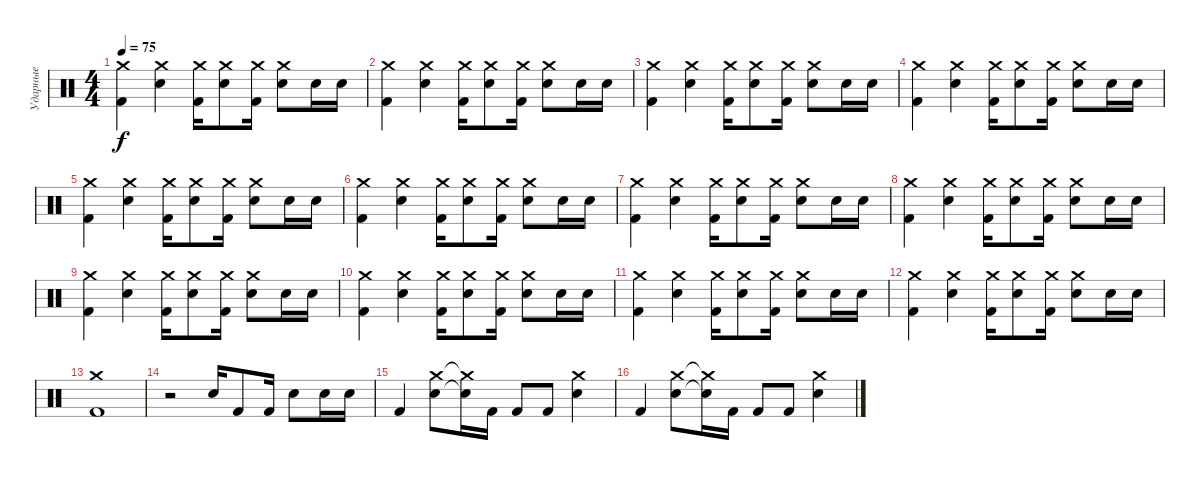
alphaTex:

\track ("Ударные" "Ударные") {instrument percussion}
\staff {score}
\articulation defaults
\ts (4 4)
\tempo 75
\clef neutral
\ks c
("Kick (hit) 2" "Crash medium (hit)").4{dy f} ("Electric Snare (hit)" "Crash medium (hit)").4 ("Kick (hit) 2" "Crash medium (hit)"{x}).16 ("Electric Snare (hit)" "Crash medium (hit)").8 ("Kick (hit) 2" "Crash medium (hit)"{x}).16 ("Electric Snare (hit)" "Crash medium (hit)").8 "Electric Snare (hit)".16 "Electric Snare (hit)".16 |
("Kick (hit) 2" "Crash medium (hit)").4 ("Electric Snare (hit)" "Crash medium (hit)").4 ("Kick (hit) 2" "Crash medium (hit)"{x}).16 ("Electric Snare (hit)" "Crash medium (hit)").8 ("Kick (hit) 2" "Crash medium (hit)"{x}).16 ("Electric Snare (hit)" "Crash medium (hit)").8 "Electric Snare (hit)".16 "Electric Snare (hit)".16 |
("Kick (hit) 2" "Crash medium (hit)").4 ("Electric Snare (hit)" "Crash medium (hit)").4 ("Kick (hit) 2" "Crash medium (hit)"{x}).16 ("Electric Snare (hit)" "Crash medium (hit)").8 ("Kick (hit) 2" "Crash medium (hit)"{x}).16 ("Electric Snare (hit)" "Crash medium (hit)").8 "Electric Snare (hit)".16 "Electric Snare (hit)".16 |
("Kick (hit) 2" "Crash medium (hit)").4 ("Electric Snare (hit)" "Crash medium (hit)").4 ("Kick (hit) 2" "Crash medium (hit)"{x}).16 ("Electric Snare (hit)" "Crash medium (hit)").8 ("Kick (hit) 2" "Crash medium (hit)"{x}).16 ("Electric Snare (hit)" "Crash medium (hit)").8 "Electric Snare (hit)".16 "Electric Snare (hit)".16 |
("Kick (hit) 2" "Crash medium (hit)").4 ("Electric Snare (hit)" "Crash medium (hit)").4 ("Kick (hit) 2" "Crash medium (hit)"{x}).16 ("Electric Snare (hit)" "Crash medium (hit)").8 ("Kick (hit) 2" "Crash medium (hit)"{x}).16 ("Electric Snare (hit)" "Crash medium (hit)").8 "Electric Snare (hit)".16 "Electric Snare (hit)".16 |
("Kick (hit) 2" "Crash medium (hit)").4 ("Electric Snare (hit)" "Crash medium (hit)").4 ("Kick (hit) 2" "Crash medium (hit)"{x}).16 ("Electric Snare (hit)" "Crash medium (hit)").8 ("Kick (hit) 2" "Crash medium (hit)"{x}).16 ("Electric Snare (hit)" "Crash medium (hit)").8 "Electric Snare (hit)".16 "Electric Snare (hit)".16 |
("Kick (hit) 2" "Crash medium (hit)").4 ("Electric Snare (hit)" "Crash medium (hit)").4 ("Kick (hit) 2" "Crash medium (hit)"{x}).16 ("Electric Snare (hit)" "Crash medium (hit)").8 ("Kick (hit) 2" "Crash medium (hit)"{x}).16 ("Electric Snare (hit)" "Crash medium (hit)").8 "Electric Snare (hit)".16 "Electric Snare (hit)".16 |
("Kick (hit) 2" "Crash medium (hit)").4 ("Electric Snare (hit)" "Crash medium (hit)").4 ("Kick (hit) 2" "Crash medium (hit)"{x}).16 ("Electric Snare (hit)" "Crash medium (hit)").8 ("Kick (hit) 2" "Crash medium (hit)"{x}).16 ("Electric Snare (hit)" "Crash medium (hit)").8 "Electric Snare (hit)".16 "Electric Snare (hit)".16 |
("Kick (hit) 2" "Crash medium (hit)").4 ("Electric Snare (hit)" "Crash medium (hit)").4 ("Kick (hit) 2" "Crash medium (hit)"{x}).16 ("Electric Snare (hit)" "Crash medium (hit)").8 ("Kick (hit) 2" "Crash medium (hit)"{x}).16 ("Electric Snare (hit)" "Crash medium (hit)").8 "Electric Snare (hit)".16 "Electric Snare (hit)".16 |
("Kick (hit) 2" "Crash medium (hit)").4 ("Electric Snare (hit)" "Crash medium (hit)").4 ("Kick (hit) 2" "Crash medium (hit)"{x}).16 ("Electric Snare (hit)" "Crash medium (hit)").8 ("Kick (hit) 2" "Crash medium (hit)"{x}).16 ("Electric Snare (hit)" "Crash medium (hit)").8 "Electric Snare (hit)".16 "Electric Snare (hit)".16 |
("Kick (hit) 2" "Crash medium (hit)").4 ("Electric Snare (hit)" "Crash medium (hit)").4 ("Kick (hit) 2" "Crash medium (hit)"{x}).16 ("Electric Snare (hit)" "Crash medium (hit)").8 ("Kick (hit) 2" "Crash medium (hit)"{x}).16 ("Electric Snare (hit)" "Crash medium (hit)").8 "Electric Snare (hit)".16 "Electric Snare (hit)".16 |
("Kick (hit) 2" "Crash medium (hit)").4 ("Electric Snare (hit)" "Crash medium (hit)").4 ("Kick (hit) 2" "Crash medium (hit)"{x}).16 ("Electric Snare (hit)" "Crash medium (hit)").8 ("Kick (hit) 2" "Crash medium (hit)"{x}).16 ("Electric Snare (hit)" "Crash medium (hit)").8 "Electric Snare (hit)".16 "Electric Snare (hit)".16 |
("Kick (hit) 2" "Crash medium (hit)").1 |
r.2 "Electric Snare (hit)".16 "Kick (hit) 2".8 "Kick (hit) 2".16 "Electric Snare (hit)".8 "Electric Snare (hit)".16 "Electric Snare (hit)".16 |
"Kick (hit) 2".4 ("Electric Snare (hit)" "Crash medium (hit)").8 ("Electric Snare (hit)"{t} "Crash medium (hit)"{t}).16 "Kick (hit) 2".16 "Kick (hit) 2".8 "Kick (hit) 2".8 ("Electric Snare (hit)" "Crash medium (hit)").4 |
"Kick (hit) 2".4 ("Electric Snare (hit)" "Crash medium (hit)").8 ("Electric Snare (hit)"{t} "Crash medium (hit)"{t}).16 "Kick (hit) 2".16 "Kick (hit) 2".8 "Kick (hit) 2".8 ("Electric Snare (hit)" "Crash medium (hit)").4
